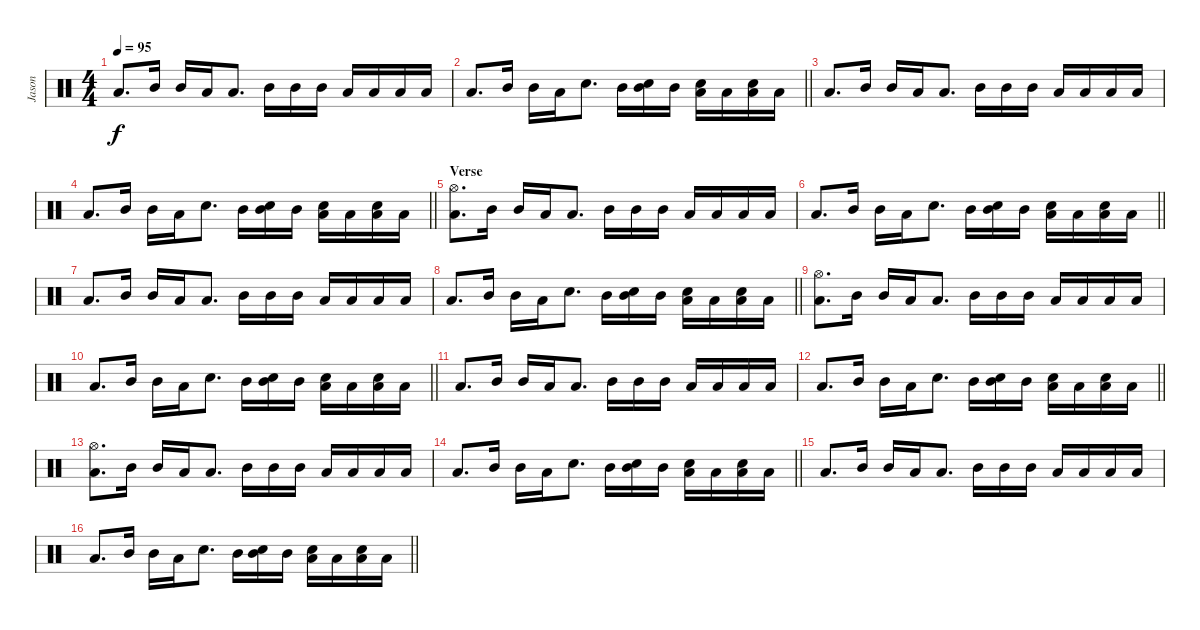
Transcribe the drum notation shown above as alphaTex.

\track ("Jason" "Jason") {instrument percussion}
\staff {score}
\articulation defaults
\ts (4 4)
\tempo 95
\clef neutral
\ks c "Low Floor Tom (hit)".8{d dy f} "Mid Tom (hit)".16 "Mid Tom (hit)".16 "Low Tom (hit)".16 "Low Floor Tom (hit)".8{d} "Mid Tom (hit)".16 "Mid Tom (hit)".16 "Mid Tom (hit)".16 "Low Tom (hit)".16 "Low Tom (hit)".16 "Low Tom (hit)".16 "Low Tom (hit)".16
|
\barLineRight lightlight "Low Floor Tom (hit)".8{d} "Mid Tom (hit)".16 "Mid Tom (hit)".16 "Low Tom (hit)".16 "Electric Snare (hit)".8{d} "Mid Tom (hit)".16
("Mid Tom (hit)" "Electric Snare (hit)").16 "Mid Tom (hit)".16 ("Low Tom (hit)" "Electric Snare (hit)").16 "Low Tom (hit)".16 ("Low Tom (hit)" "Electric Snare (hit)").16 "Low Tom (hit)".16 |
"Low Floor Tom (hit)".8{d} "Mid Tom (hit)".16 "Mid Tom (hit)".16 "Low Tom (hit)".16 "Low Floor Tom (hit)".8{d} "Mid Tom (hit)".16 "Mid Tom (hit)".16 "Mid Tom (hit)".16 "Low Tom (hit)".16 "Low Tom (hit)".16 "Low Tom (hit)".16 "Low Tom (hit)".16 |
\barLineRight lightlight "Low Floor Tom (hit)".8{d} "Mid Tom (hit)".16 "Mid Tom (hit)".16 "Low Tom (hit)".16 "Electric Snare (hit)".8{d} "Mid Tom (hit)".16
("Mid Tom (hit)" "Electric Snare (hit)").16 "Mid Tom (hit)".16 ("Low Tom (hit)" "Electric Snare (hit)").16 "Low Tom (hit)".16 ("Low Tom (hit)" "Electric Snare (hit)").16 "Low Tom (hit)".16 |
\section ("" "Verse")
("Hi-Hat (open)" "Low Floor Tom (hit)").8{d} "Mid Tom (hit)".16 "Mid Tom (hit)".16 "Low Tom (hit)".16 "Low Floor Tom (hit)".8{d} "Mid Tom (hit)".16 "Mid Tom (hit)".16 "Mid Tom (hit)".16 "Low Tom (hit)".16 "Low Tom (hit)".16 "Low Tom (hit)".16 "Low Tom (hit)".16 |
\barLineRight lightlight "Low Floor Tom (hit)".8{d} "Mid Tom (hit)".16 "Mid Tom (hit)".16 "Low Tom (hit)".16 "Electric Snare (hit)".8{d} "Mid Tom (hit)".16
("Mid Tom (hit)" "Electric Snare (hit)").16 "Mid Tom (hit)".16 ("Low Tom (hit)" "Electric Snare (hit)").16 "Low Tom (hit)".16 ("Low Tom (hit)" "Electric Snare (hit)").16 "Low Tom (hit)".16 |
"Low Floor Tom (hit)".8{d} "Mid Tom (hit)".16 "Mid Tom (hit)".16 "Low Tom (hit)".16 "Low Floor Tom (hit)".8{d} "Mid Tom (hit)".16 "Mid Tom (hit)".16 "Mid Tom (hit)".16 "Low Tom (hit)".16 "Low Tom (hit)".16 "Low Tom (hit)".16 "Low Tom (hit)".16 |
\barLineRight lightlight "Low Floor Tom (hit)".8{d} "Mid Tom (hit)".16 "Mid Tom (hit)".16 "Low Tom (hit)".16 "Electric Snare (hit)".8{d} "Mid Tom (hit)".16
("Mid Tom (hit)" "Electric Snare (hit)").16 "Mid Tom (hit)".16 ("Low Tom (hit)" "Electric Snare (hit)").16 "Low Tom (hit)".16 ("Low Tom (hit)" "Electric Snare (hit)").16 "Low Tom (hit)".16 |
("Hi-Hat (open)" "Low Floor Tom (hit)").8{d} "Mid Tom (hit)".16 "Mid Tom (hit)".16 "Low Tom (hit)".16 "Low Floor Tom (hit)".8{d} "Mid Tom (hit)".16 "Mid Tom (hit)".16 "Mid Tom (hit)".16 "Low Tom (hit)".16 "Low Tom (hit)".16 "Low Tom (hit)".16 "Low Tom (hit)".16 |
\barLineRight lightlight "Low Floor Tom (hit)".8{d} "Mid Tom (hit)".16 "Mid Tom (hit)".16 "Low Tom (hit)".16 "Electric Snare (hit)".8{d} "Mid Tom (hit)".16
("Mid Tom (hit)" "Electric Snare (hit)").16 "Mid Tom (hit)".16 ("Low Tom (hit)" "Electric Snare (hit)").16 "Low Tom (hit)".16 ("Low Tom (hit)" "Electric Snare (hit)").16 "Low Tom (hit)".16 |
"Low Floor Tom (hit)".8{d} "Mid Tom (hit)".16 "Mid Tom (hit)".16 "Low Tom (hit)".16 "Low Floor Tom (hit)".8{d} "Mid Tom (hit)".16 "Mid Tom (hit)".16 "Mid Tom (hit)".16 "Low Tom (hit)".16 "Low Tom (hit)".16 "Low Tom (hit)".16 "Low Tom (hit)".16 |
\barLineRight lightlight "Low Floor Tom (hit)".8{d} "Mid Tom (hit)".16 "Mid Tom (hit)".16 "Low Tom (hit)".16 "Electric Snare (hit)".8{d} "Mid Tom (hit)".16
("Mid Tom (hit)" "Electric Snare (hit)").16 "Mid Tom (hit)".16 ("Low Tom (hit)" "Electric Snare (hit)").16 "Low Tom (hit)".16 ("Low Tom (hit)" "Electric Snare (hit)").16 "Low Tom (hit)".16 |
("Hi-Hat (open)" "Low Floor Tom (hit)").8{d} "Mid Tom (hit)".16 "Mid Tom (hit)".16 "Low Tom (hit)".16 "Low Floor Tom (hit)".8{d} "Mid Tom (hit)".16 "Mid Tom (hit)".16 "Mid Tom (hit)".16 "Low Tom (hit)".16 "Low Tom (hit)".16 "Low Tom (hit)".16 "Low Tom (hit)".16 |
\barLineRight lightlight "Low Floor Tom (hit)".8{d} "Mid Tom (hit)".16 "Mid Tom (hit)".16 "Low Tom (hit)".16 "Electric Snare (hit)".8{d} "Mid Tom (hit)".16
("Mid Tom (hit)" "Electric Snare (hit)").16 "Mid Tom (hit)".16 ("Low Tom (hit)" "Electric Snare (hit)").16 "Low Tom (hit)".16 ("Low Tom (hit)" "Electric Snare (hit)").16 "Low Tom (hit)".16 |
"Low Floor Tom (hit)".8{d} "Mid Tom (hit)".16 "Mid Tom (hit)".16 "Low Tom (hit)".16 "Low Floor Tom (hit)".8{d} "Mid Tom (hit)".16 "Mid Tom (hit)".16 "Mid Tom (hit)".16 "Low Tom (hit)".16 "Low Tom (hit)".16 "Low Tom (hit)".16 "Low Tom (hit)".16 |
\barLineRight lightlight "Low Floor Tom (hit)".8{d} "Mid Tom (hit)".16 "Mid Tom (hit)".16 "Low Tom (hit)".16 "Electric Snare (hit)".8{d} "Mid Tom (hit)".16
("Mid Tom (hit)" "Electric Snare (hit)").16 "Mid Tom (hit)".16 ("Low Tom (hit)" "Electric Snare (hit)").16 "Low Tom (hit)".16 ("Low Tom (hit)" "Electric Snare (hit)").16 "Low Tom (hit)".16
